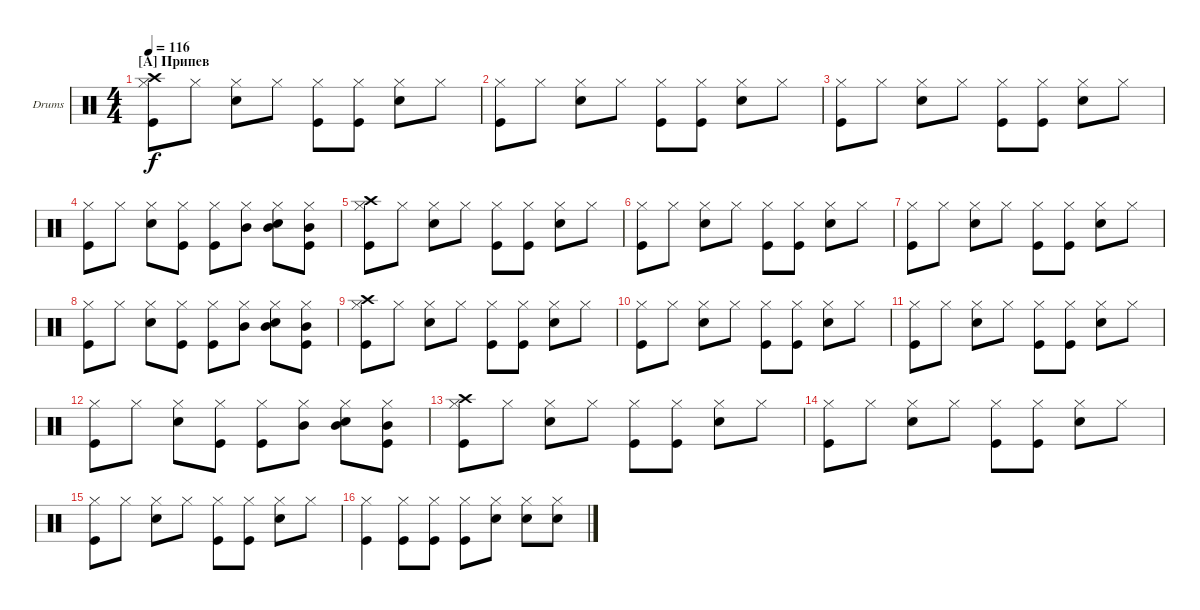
\defaultSystemsLayout 4
\bracketExtendMode groupsimilarinstruments
\firstSystemTrackNameOrientation horizontal
\otherSystemsTrackNameOrientation horizontal
\track ("Drumkit" "Drums") {instrument percussion}
\staff {score}
\articulation defaults
\ts (4 4)
\section ("A" "Припев")
\tempo 116
\clef neutral
\ks c
("Hi-Hat (closed)" "Crash high (hit)" "Kick (hit)").8{dy f} "Hi-Hat (closed)".8 ("Hi-Hat (closed)" "Snare (hit) 2").8 "Hi-Hat (closed)".8 ("Hi-Hat (closed)" "Kick (hit)").8 ("Hi-Hat (closed)" "Kick (hit)").8 ("Hi-Hat (closed)" "Snare (hit) 2").8 "Hi-Hat (closed)".8 |
("Hi-Hat (closed)" "Kick (hit)").8 "Hi-Hat (closed)".8 ("Hi-Hat (closed)" "Snare (hit) 2").8 "Hi-Hat (closed)".8 ("Hi-Hat (closed)" "Kick (hit)").8 ("Hi-Hat (closed)" "Kick (hit)").8 ("Hi-Hat (closed)" "Snare (hit) 2").8 "Hi-Hat (closed)".8 |
("Hi-Hat (closed)" "Kick (hit)").8 "Hi-Hat (closed)".8 ("Hi-Hat (closed)" "Snare (hit) 2").8 "Hi-Hat (closed)".8 ("Hi-Hat (closed)" "Kick (hit)").8 ("Hi-Hat (closed)" "Kick (hit)").8 ("Hi-Hat (closed)" "Snare (hit) 2").8 "Hi-Hat (closed)".8 |
("Hi-Hat (closed)" "Kick (hit)").8 "Hi-Hat (closed)".8 ("Hi-Hat (closed)" "Snare (hit) 2").8 ("Hi-Hat (closed)" "Kick (hit)").8 ("Hi-Hat (closed)" "Kick (hit)").8 ("Hi-Hat (closed)" "Mid Tom (hit)").8 ("Hi-Hat (closed)" "Snare (hit) 2" "Mid Tom (hit)").8 ("Hi-Hat (closed)" "Kick (hit)" "Mid Tom (hit)").8 |
("Hi-Hat (closed)" "Crash high (hit)" "Kick (hit)").8 "Hi-Hat (closed)".8 ("Hi-Hat (closed)" "Snare (hit) 2").8 "Hi-Hat (closed)".8 ("Hi-Hat (closed)" "Kick (hit)").8 ("Hi-Hat (closed)" "Kick (hit)").8 ("Hi-Hat (closed)" "Snare (hit) 2").8 "Hi-Hat (closed)".8 |
("Hi-Hat (closed)" "Kick (hit)").8 "Hi-Hat (closed)".8 ("Hi-Hat (closed)" "Snare (hit) 2").8 "Hi-Hat (closed)".8 ("Hi-Hat (closed)" "Kick (hit)").8 ("Hi-Hat (closed)" "Kick (hit)").8 ("Hi-Hat (closed)" "Snare (hit) 2").8 "Hi-Hat (closed)".8 |
("Hi-Hat (closed)" "Kick (hit)").8 "Hi-Hat (closed)".8 ("Hi-Hat (closed)" "Snare (hit) 2").8 "Hi-Hat (closed)".8 ("Hi-Hat (closed)" "Kick (hit)").8 ("Hi-Hat (closed)" "Kick (hit)").8 ("Hi-Hat (closed)" "Snare (hit) 2").8 "Hi-Hat (closed)".8 |
("Hi-Hat (closed)" "Kick (hit)").8 "Hi-Hat (closed)".8 ("Hi-Hat (closed)" "Snare (hit) 2").8 ("Hi-Hat (closed)" "Kick (hit)").8 ("Hi-Hat (closed)" "Kick (hit)").8 ("Hi-Hat (closed)" "Mid Tom (hit)").8 ("Hi-Hat (closed)" "Snare (hit) 2" "Mid Tom (hit)").8 ("Hi-Hat (closed)" "Kick (hit)" "Mid Tom (hit)").8 |
("Hi-Hat (closed)" "Crash high (hit)" "Kick (hit)").8 "Hi-Hat (closed)".8 ("Hi-Hat (closed)" "Snare (hit) 2").8 "Hi-Hat (closed)".8 ("Hi-Hat (closed)" "Kick (hit)").8 ("Hi-Hat (closed)" "Kick (hit)").8 ("Hi-Hat (closed)" "Snare (hit) 2").8 "Hi-Hat (closed)".8 |
("Hi-Hat (closed)" "Kick (hit)").8 "Hi-Hat (closed)".8 ("Hi-Hat (closed)" "Snare (hit) 2").8 "Hi-Hat (closed)".8 ("Hi-Hat (closed)" "Kick (hit)").8 ("Hi-Hat (closed)" "Kick (hit)").8 ("Hi-Hat (closed)" "Snare (hit) 2").8 "Hi-Hat (closed)".8 |
("Hi-Hat (closed)" "Kick (hit)").8 "Hi-Hat (closed)".8 ("Hi-Hat (closed)" "Snare (hit) 2").8 "Hi-Hat (closed)".8 ("Hi-Hat (closed)" "Kick (hit)").8 ("Hi-Hat (closed)" "Kick (hit)").8 ("Hi-Hat (closed)" "Snare (hit) 2").8 "Hi-Hat (closed)".8 |
("Hi-Hat (closed)" "Kick (hit)").8 "Hi-Hat (closed)".8 ("Hi-Hat (closed)" "Snare (hit) 2").8 ("Hi-Hat (closed)" "Kick (hit)").8 ("Hi-Hat (closed)" "Kick (hit)").8 ("Hi-Hat (closed)" "Mid Tom (hit)").8 ("Hi-Hat (closed)" "Snare (hit) 2" "Mid Tom (hit)").8 ("Hi-Hat (closed)" "Kick (hit)" "Mid Tom (hit)").8 |
("Hi-Hat (closed)" "Crash high (hit)" "Kick (hit)").8 "Hi-Hat (closed)".8 ("Hi-Hat (closed)" "Snare (hit) 2").8 "Hi-Hat (closed)".8 ("Hi-Hat (closed)" "Kick (hit)").8 ("Hi-Hat (closed)" "Kick (hit)").8 ("Hi-Hat (closed)" "Snare (hit) 2").8 "Hi-Hat (closed)".8 |
("Hi-Hat (closed)" "Kick (hit)").8 "Hi-Hat (closed)".8 ("Hi-Hat (closed)" "Snare (hit) 2").8 "Hi-Hat (closed)".8 ("Hi-Hat (closed)" "Kick (hit)").8 ("Hi-Hat (closed)" "Kick (hit)").8 ("Hi-Hat (closed)" "Snare (hit) 2").8 "Hi-Hat (closed)".8 |
("Hi-Hat (closed)" "Kick (hit)").8 "Hi-Hat (closed)".8 ("Hi-Hat (closed)" "Snare (hit) 2").8 "Hi-Hat (closed)".8 ("Hi-Hat (closed)" "Kick (hit)").8 ("Hi-Hat (closed)" "Kick (hit)").8 ("Hi-Hat (closed)" "Snare (hit) 2").8 "Hi-Hat (closed)".8 |
("Hi-Hat (closed)" "Kick (hit)").4 ("Hi-Hat (closed)" "Kick (hit)").8 ("Hi-Hat (closed)" "Kick (hit)").8 ("Hi-Hat (closed)" "Kick (hit)").8 ("Hi-Hat (closed)" "Snare (hit) 2").8 ("Hi-Hat (closed)" "Snare (hit) 2").8 ("Hi-Hat (closed)" "Snare (hit) 2").8
